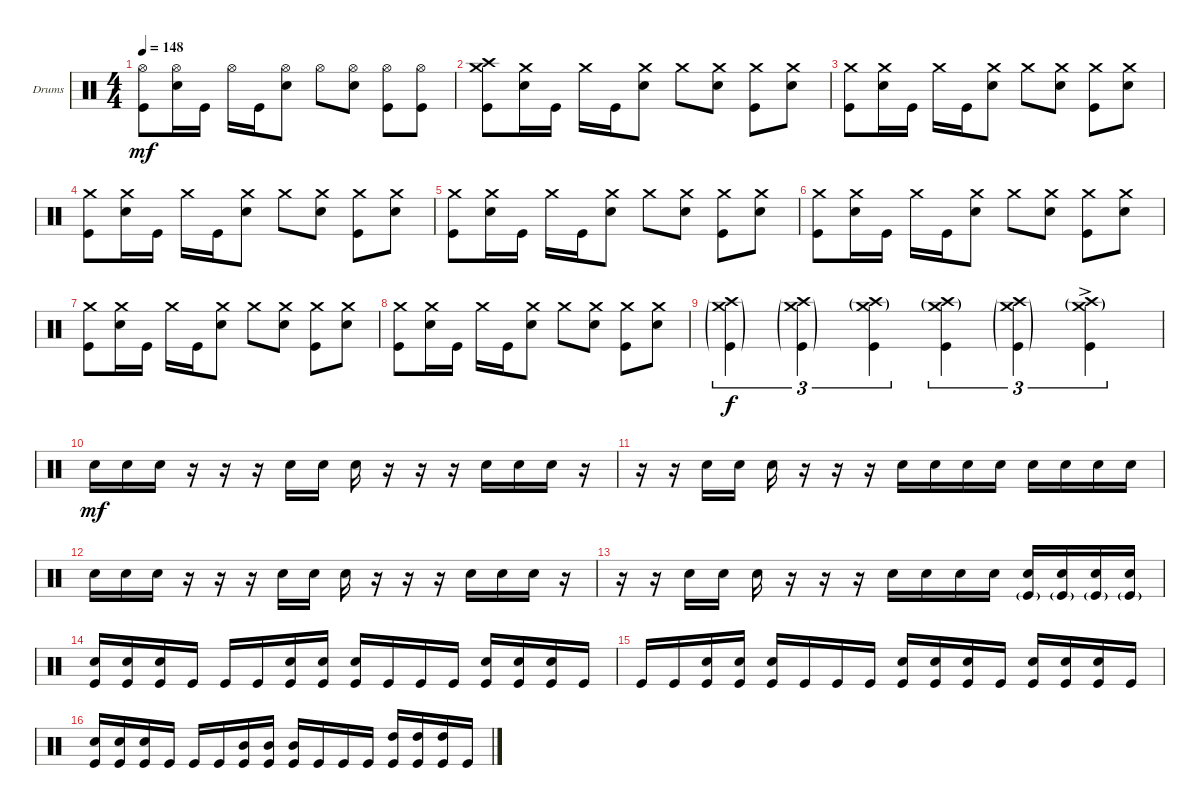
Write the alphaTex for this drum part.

\bracketExtendMode groupsimilarinstruments
\firstSystemTrackNameOrientation horizontal
\otherSystemsTrackNameOrientation horizontal
\track ("Drumkit" "Drums") {instrument percussion}
\staff {score}
\articulation defaults
\ts (4 4)
\tempo 148
\clef neutral
\scale
0.333333
\ks c
("Kick (hit)" "Hi-Hat (open)").8{dy mf} ("Snare (hit) 2" "Hi-Hat (open)").16 "Kick (hit)".16 "Hi-Hat (open)".16 "Kick (hit)".16 ("Snare (hit) 2" "Hi-Hat (open)").8 "Hi-Hat (open)".8 ("Snare (hit) 2" "Hi-Hat (open)").8 ("Kick (hit)" "Hi-Hat (open)").8 ("Hi-Hat (open)" "Kick (hit)").8 |
\scale
0.333333 ("Kick (hit)" "Crash high (hit)" "Crash medium (hit)").8 ("Snare (hit) 2" "Crash medium (hit)").16 "Kick (hit)".16 "Crash medium (hit)".16 "Kick (hit)".16 ("Snare (hit) 2" "Crash medium (hit)").8 "Crash medium (hit)".8 ("Snare (hit) 2" "Crash medium (hit)").8 ("Kick (hit)" "Crash medium (hit)").8 ("Crash medium (hit)" "Snare (hit) 2").8 |
\scale
0.333333 ("Kick (hit)" "Crash medium (hit)").8 ("Snare (hit) 2" "Crash medium (hit)").16 "Kick (hit)".16 "Crash medium (hit)".16 "Kick (hit)".16 ("Snare (hit) 2" "Crash medium (hit)").8 "Crash medium (hit)".8 ("Snare (hit) 2" "Crash medium (hit)").8 ("Kick (hit)" "Crash medium (hit)").8 ("Crash medium (hit)" "Snare (hit) 2").8 |
\scale
0.333333 ("Kick (hit)" "Crash medium (hit)").8 ("Snare (hit) 2" "Crash medium (hit)").16 "Kick (hit)".16 "Crash medium (hit)".16 "Kick (hit)".16 ("Snare (hit) 2" "Crash medium (hit)").8 "Crash medium (hit)".8 ("Snare (hit) 2" "Crash medium (hit)").8 ("Kick (hit)" "Crash medium (hit)").8 ("Crash medium (hit)" "Snare (hit) 2").8 |
\scale
0.333333 ("Kick (hit)" "Crash medium (hit)").8 ("Snare (hit) 2" "Crash medium (hit)").16 "Kick (hit)".16 "Crash medium (hit)".16 "Kick (hit)".16 ("Snare (hit) 2" "Crash medium (hit)").8 "Crash medium (hit)".8 ("Snare (hit) 2" "Crash medium (hit)").8 ("Kick (hit)" "Crash medium (hit)").8 ("Crash medium (hit)" "Snare (hit) 2").8 |
\scale
0.333333 ("Kick (hit)" "Crash medium (hit)").8 ("Snare (hit) 2" "Crash medium (hit)").16 "Kick (hit)".16 "Crash medium (hit)".16 "Kick (hit)".16 ("Snare (hit) 2" "Crash medium (hit)").8 "Crash medium (hit)".8 ("Snare (hit) 2" "Crash medium (hit)").8 ("Kick (hit)" "Crash medium (hit)").8 ("Crash medium (hit)" "Snare (hit) 2").8 |
\scale
0.333333 ("Kick (hit)" "Crash medium (hit)").8 ("Snare (hit) 2" "Crash medium (hit)").16 "Kick (hit)".16 "Crash medium (hit)".16 "Kick (hit)".16 ("Snare (hit) 2" "Crash medium (hit)").8 "Crash medium (hit)".8 ("Snare (hit) 2" "Crash medium (hit)").8 ("Kick (hit)" "Crash medium (hit)").8 ("Crash medium (hit)" "Snare (hit) 2").8 |
\scale
0.333333 ("Kick (hit)" "Crash medium (hit)").8 ("Snare (hit) 2" "Crash medium (hit)").16 "Kick (hit)".16 "Crash medium (hit)".16 "Kick (hit)".16 ("Snare (hit) 2" "Crash medium (hit)").8 "Crash medium (hit)".8 ("Snare (hit) 2" "Crash medium (hit)").8 ("Kick (hit)" "Crash medium (hit)").8 ("Crash medium (hit)" "Snare (hit) 2").8 |
\scale
0.333333 ("Kick (hit)"{g} "Crash medium (hit)"{g} "Crash high (hit)"{g}).4{tu (3 2) dy f} ("Kick (hit)"{g} "Crash high (hit)"{g} "Crash medium (hit)"{g}).4{tu (3 2)} ("Kick (hit)" "Crash medium (hit)"{g} "Crash high (hit)"{g}).4{tu (3 2)} ("Kick (hit)" "Crash high (hit)"{g} "Crash medium (hit)"{g}).4{tu (3 2)} ("Kick (hit)"{g} "Crash medium (hit)"{g} "Crash high (hit)"{g}).4{tu (3 2)} ("Kick (hit)"{ac} "Crash high (hit)"{g} "Crash medium (hit)"{g}).4{tu (3 2)} |
\scale
0.333333 "Snare (hit) 2".16{dy mf} "Snare (hit) 2".16 "Snare (hit) 2".16 r.16 r.16 r.16 "Snare (hit) 2".16 "Snare (hit) 2".16 "Snare (hit) 2".16 r.16 r.16 r.16 "Snare (hit) 2".16 "Snare (hit) 2".16 "Snare (hit) 2".16 r.16 |
\scale
0.333333 r.16 r.16 "Snare (hit) 2".16 "Snare (hit) 2".16 "Snare (hit) 2".16 r.16 r.16 r.16 "Snare (hit) 2".16 "Snare (hit) 2".16 "Snare (hit) 2".16 "Snare (hit) 2".16 "Snare (hit) 2".16 "Snare (hit) 2".16 "Snare (hit) 2".16 "Snare (hit) 2".16 |
\scale
0.333333 "Snare (hit) 2".16 "Snare (hit) 2".16 "Snare (hit) 2".16 r.16 r.16 r.16 "Snare (hit) 2".16 "Snare (hit) 2".16 "Snare (hit) 2".16 r.16 r.16 r.16 "Snare (hit) 2".16 "Snare (hit) 2".16 "Snare (hit) 2".16 r.16 |
\scale
0.333333 r.16 r.16 "Snare (hit) 2".16 "Snare (hit) 2".16 "Snare (hit) 2".16 r.16 r.16 r.16 "Snare (hit) 2".16 "Snare (hit) 2".16 "Snare (hit) 2".16 "Snare (hit) 2".16 ("Snare (hit) 2" "Kick (hit)"{g}).16 ("Snare (hit) 2" "Kick (hit)"{g}).16 ("Snare (hit) 2" "Kick (hit)"{g}).16 ("Snare (hit) 2" "Kick (hit)"{g}).16 |
\scale
0.333333 ("Snare (hit) 2" "Kick (hit)").16 ("Snare (hit) 2" "Kick (hit)").16 ("Snare (hit) 2" "Kick (hit)").16 "Kick (hit)".16 "Kick (hit)".16 "Kick (hit)".16 ("Snare (hit) 2" "Kick (hit)").16 ("Snare (hit) 2" "Kick (hit)").16 ("Snare (hit) 2" "Kick (hit)").16 "Kick (hit)".16 "Kick (hit)".16 "Kick (hit)".16 ("Snare (hit) 2" "Kick (hit)").16 ("Snare (hit) 2" "Kick (hit)").16 ("Snare (hit) 2" "Kick (hit)").16 "Kick (hit)".16 |
\scale
0.333333 "Kick (hit)".16 "Kick (hit)".16 ("Snare (hit) 2" "Kick (hit)").16 ("Snare (hit) 2" "Kick (hit)").16 ("Snare (hit) 2" "Kick (hit)").16 "Kick (hit)".16 "Kick (hit)".16 "Kick (hit)".16 ("Snare (hit) 2" "Kick (hit)").16 ("Snare (hit) 2" "Kick (hit)").16 ("Snare (hit) 2" "Kick (hit)").16 "Kick (hit)".16 ("Snare (hit) 2" "Kick (hit)").16 ("Snare (hit) 2" "Kick (hit)").16 ("Snare (hit) 2" "Kick (hit)").16 "Kick (hit)".16 |
\scale
0.333333 ("Snare (hit) 2" "Kick (hit)").16 ("Snare (hit) 2" "Kick (hit)").16 ("Snare (hit) 2" "Kick (hit)").16 "Kick (hit)".16 "Kick (hit)".16 "Kick (hit)".16 ("Kick (hit)" "Mid Tom (hit)").16 ("Kick (hit)" "Mid Tom (hit)").16 ("Kick (hit)" "Mid Tom (hit)").16 "Kick (hit)".16 "Kick (hit)".16 "Kick (hit)".16 ("Kick (hit)" "High Tom (hit)").16 ("Kick (hit)" "High Tom (hit)").16 ("Kick (hit)" "High Tom (hit)").16 "Kick (hit)".16
